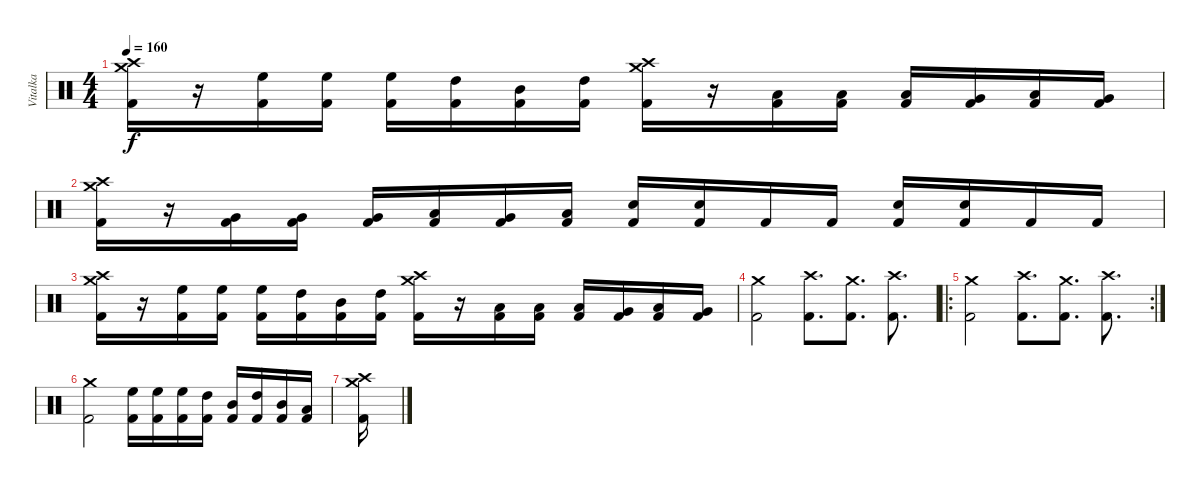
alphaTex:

\track ("Vitalka" "Vitalka") {instrument percussion}
\staff {score}
\articulation defaults
\ts (4 4)
\tempo 160
\clef neutral
\ks c
("Crash medium (hit)" "Crash high (hit)" "Kick (hit) 2").16{dy f} r.16 ("High Floor Tom (hit)" "Kick (hit) 2").16 ("High Floor Tom (hit)" "Kick (hit) 2").16 ("High Floor Tom (hit)" "Kick (hit) 2").16 ("High Tom (hit)" "Kick (hit) 2").16 ("Mid Tom (hit)" "Kick (hit) 2").16 ("High Tom (hit)" "Kick (hit) 2").16 ("Crash medium (hit)" "Crash high (hit)" "Kick (hit) 2").16 r.16 ("Low Tom (hit)" "Kick (hit) 2").16 ("Low Tom (hit)" "Kick (hit) 2").16 ("Low Tom (hit)" "Kick (hit) 2").16 ("Very Low Tom (hit)" "Kick (hit) 2").16 ("Low Floor Tom (hit)" "Kick (hit) 2").16 ("Very Low Tom (hit)" "Kick (hit) 2").16 |
("Crash medium (hit)" "Crash high (hit)" "Kick (hit) 2").16 r.16 ("Very Low Tom (hit)" "Kick (hit) 2").16 ("Very Low Tom (hit)" "Kick (hit) 2").16 ("Very Low Tom (hit)" "Kick (hit) 2").16 ("Low Floor Tom (hit)" "Kick (hit) 2").16 ("Very Low Tom (hit)" "Kick (hit) 2").16 ("Low Floor Tom (hit)" "Kick (hit) 2").16 ("Snare (hit) 2" "Kick (hit) 2").16 ("Snare (hit) 2" "Kick (hit) 2").16 "Kick (hit) 2".16 "Kick (hit) 2".16 ("Snare (hit) 2" "Kick (hit) 2").16 ("Snare (hit) 2" "Kick (hit) 2").16 "Kick (hit) 2".16 "Kick (hit) 2".16 |
("Crash medium (hit)" "Crash high (hit)" "Kick (hit) 2").16 r.16 ("High Floor Tom (hit)" "Kick (hit) 2").16 ("High Floor Tom (hit)" "Kick (hit) 2").16 ("High Floor Tom (hit)" "Kick (hit) 2").16 ("High Tom (hit)" "Kick (hit) 2").16 ("Mid Tom (hit)" "Kick (hit) 2").16 ("High Tom (hit)" "Kick (hit) 2").16 ("Crash medium (hit)" "Crash high (hit)" "Kick (hit) 2").16 r.16 ("Low Tom (hit)" "Kick (hit) 2").16 ("Low Tom (hit)" "Kick (hit) 2").16 ("Low Tom (hit)" "Kick (hit) 2").16 ("Very Low Tom (hit)" "Kick (hit) 2").16 ("Low Floor Tom (hit)" "Kick (hit) 2").16 ("Very Low Tom (hit)" "Kick (hit) 2").16 |
("Crash medium (hit)" "Kick (hit) 2").2 ("Crash high (hit)" "Kick (hit) 2").8{d} ("Crash medium (hit)" "Kick (hit) 2").8{d} ("Crash high (hit)" "Kick (hit) 2").8{d} |
\ro
\rc 2
("Crash medium (hit)" "Kick (hit) 2").2 ("Crash high (hit)" "Kick (hit) 2").8{d} ("Crash medium (hit)" "Kick (hit) 2").8{d} ("Crash high (hit)" "Kick (hit) 2").8{d} |
("Crash medium (hit)" "Kick (hit) 2").2 ("High Floor Tom (hit)" "Kick (hit) 2").16 ("High Floor Tom (hit)" "Kick (hit) 2").16 ("High Floor Tom (hit)" "Kick (hit) 2").16 ("High Tom (hit)" "Kick (hit) 2").16 ("Mid Tom (hit)" "Kick (hit) 2").16 ("High Tom (hit)" "Kick (hit) 2").16 ("Mid Tom (hit)" "Kick (hit) 2").16 ("Low Tom (hit)" "Kick (hit) 2").16 |
("Crash high (hit)" "Crash medium (hit)" "Kick (hit) 2").16
